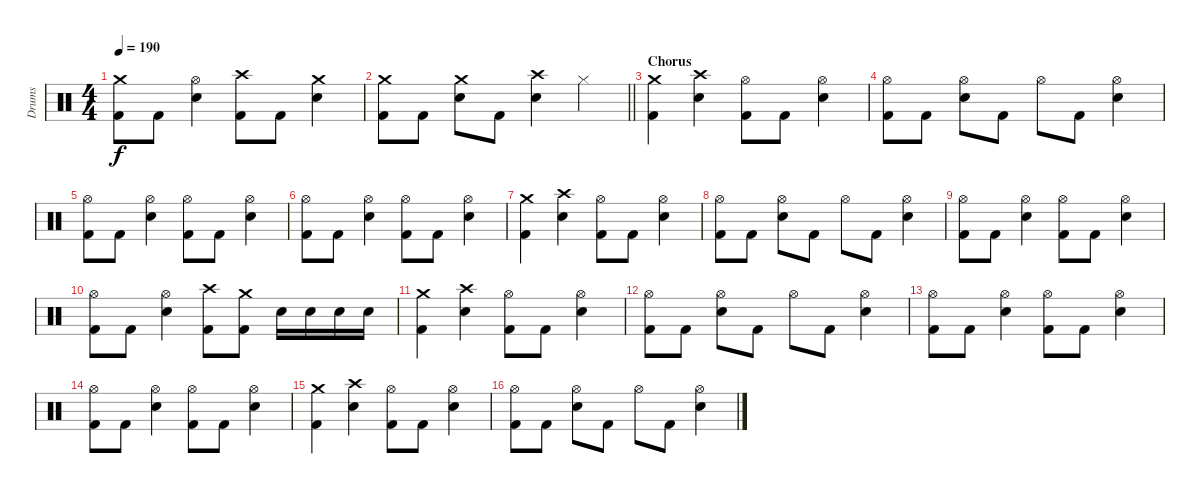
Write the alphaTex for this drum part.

\track ("Drums" "Drums") {instrument percussion}
\staff {score}
\articulation defaults
\ts (4 4)
\tempo 190
\clef neutral
\ks c
("Crash medium (hit)" "Kick (hit) 2").8{dy f} "Kick (hit) 2".8 ("Hi-Hat (open)" "Electric Snare (hit)").4 ("Crash high (hit)" "Kick (hit) 2").8 "Kick (hit) 2".8 ("Crash medium (hit)" "Electric Snare (hit)").4 |
\barLineRight lightlight
("Crash medium (hit)" "Kick (hit) 2").8 "Kick (hit) 2".8 ("Crash medium (hit)" "Electric Snare (hit)").8 "Kick (hit) 2".8 ("Crash high (hit)" "Electric Snare (hit)").4 "Hi-Hat (closed)".4 |
\section ("" "Chorus")
("Crash medium (hit)" "Kick (hit) 2").4 ("Crash high (hit)" "Electric Snare (hit)").4 ("Hi-Hat (open)" "Kick (hit) 2").8 "Kick (hit) 2".8 ("Hi-Hat (open)" "Electric Snare (hit)").4 |
("Hi-Hat (open)" "Kick (hit) 2").8 "Kick (hit) 2".8 ("Hi-Hat (open)" "Electric Snare (hit)").8 "Kick (hit) 2".8 "Hi-Hat (open)".8 "Kick (hit) 2".8 ("Hi-Hat (open)" "Electric Snare (hit)").4 |
("Hi-Hat (open)" "Kick (hit) 2").8 "Kick (hit) 2".8 ("Hi-Hat (open)" "Electric Snare (hit)").4 ("Hi-Hat (open)" "Kick (hit) 2").8 "Kick (hit) 2".8 ("Hi-Hat (open)" "Electric Snare (hit)").4 |
("Hi-Hat (open)" "Kick (hit) 2").8 "Kick (hit) 2".8 ("Hi-Hat (open)" "Electric Snare (hit)").4 ("Hi-Hat (open)" "Kick (hit) 2").8 "Kick (hit) 2".8 ("Hi-Hat (open)" "Electric Snare (hit)").4 |
("Crash medium (hit)" "Kick (hit) 2").4 ("Crash high (hit)" "Electric Snare (hit)").4 ("Hi-Hat (open)" "Kick (hit) 2").8 "Kick (hit) 2".8 ("Hi-Hat (open)" "Electric Snare (hit)").4 |
("Hi-Hat (open)" "Kick (hit) 2").8 "Kick (hit) 2".8 ("Hi-Hat (open)" "Electric Snare (hit)").8 "Kick (hit) 2".8 "Hi-Hat (open)".8 "Kick (hit) 2".8 ("Hi-Hat (open)" "Electric Snare (hit)").4 |
("Hi-Hat (open)" "Kick (hit) 2").8 "Kick (hit) 2".8 ("Hi-Hat (open)" "Electric Snare (hit)").4 ("Hi-Hat (open)" "Kick (hit) 2").8 "Kick (hit) 2".8 ("Hi-Hat (open)" "Electric Snare (hit)").4 |
("Hi-Hat (open)" "Kick (hit) 2").8 "Kick (hit) 2".8 ("Hi-Hat (open)" "Electric Snare (hit)").4 ("Crash high (hit)" "Kick (hit) 2").8 ("Crash medium (hit)" "Kick (hit) 2").8 "Electric Snare (hit)".16 "Electric Snare (hit)".16 "Electric Snare (hit)".16 "Electric Snare (hit)".16 |
("Crash medium (hit)" "Kick (hit) 2").4 ("Crash high (hit)" "Electric Snare (hit)").4 ("Hi-Hat (open)" "Kick (hit) 2").8 "Kick (hit) 2".8 ("Hi-Hat (open)" "Electric Snare (hit)").4 |
("Hi-Hat (open)" "Kick (hit) 2").8 "Kick (hit) 2".8 ("Hi-Hat (open)" "Electric Snare (hit)").8 "Kick (hit) 2".8 "Hi-Hat (open)".8 "Kick (hit) 2".8 ("Hi-Hat (open)" "Electric Snare (hit)").4 |
("Hi-Hat (open)" "Kick (hit) 2").8 "Kick (hit) 2".8 ("Hi-Hat (open)" "Electric Snare (hit)").4 ("Hi-Hat (open)" "Kick (hit) 2").8 "Kick (hit) 2".8 ("Hi-Hat (open)" "Electric Snare (hit)").4 |
("Hi-Hat (open)" "Kick (hit) 2").8 "Kick (hit) 2".8 ("Hi-Hat (open)" "Electric Snare (hit)").4 ("Hi-Hat (open)" "Kick (hit) 2").8 "Kick (hit) 2".8 ("Hi-Hat (open)" "Electric Snare (hit)").4 |
("Crash medium (hit)" "Kick (hit) 2").4 ("Crash high (hit)" "Electric Snare (hit)").4 ("Hi-Hat (open)" "Kick (hit) 2").8 "Kick (hit) 2".8 ("Hi-Hat (open)" "Electric Snare (hit)").4 |
("Hi-Hat (open)" "Kick (hit) 2").8 "Kick (hit) 2".8 ("Hi-Hat (open)" "Electric Snare (hit)").8 "Kick (hit) 2".8 "Hi-Hat (open)".8 "Kick (hit) 2".8 ("Hi-Hat (open)" "Electric Snare (hit)").4
